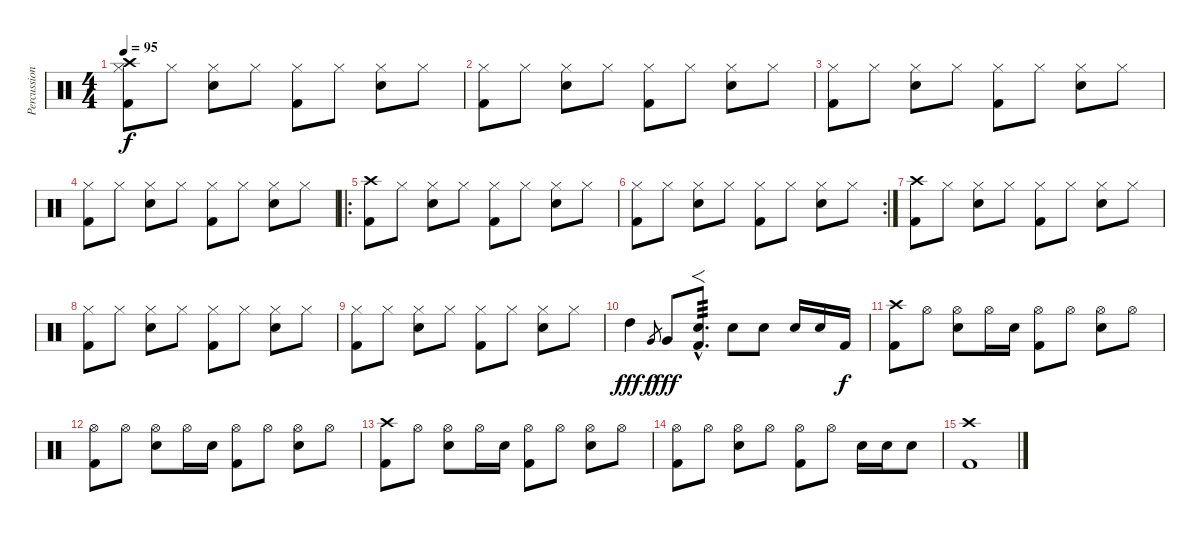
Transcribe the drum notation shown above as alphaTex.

\track ("Percussion" "Percussion") {instrument percussion}
\staff {score}
\articulation defaults
\ts (4 4)
\tempo 95
\clef neutral
\ks c
("Crash high (hit)" "Hi-Hat (closed)" "Kick (hit) 2").8{dy f volume 13} "Hi-Hat (closed)".8 ("Hi-Hat (closed)" "Electric Snare (hit)").8 "Hi-Hat (closed)".8 ("Hi-Hat (closed)" "Kick (hit) 2").8 "Hi-Hat (closed)".8 ("Hi-Hat (closed)" "Electric Snare (hit)").8 "Hi-Hat (closed)".8 |
("Hi-Hat (closed)" "Kick (hit) 2").8 "Hi-Hat (closed)".8 ("Hi-Hat (closed)" "Electric Snare (hit)").8 "Hi-Hat (closed)".8 ("Hi-Hat (closed)" "Kick (hit) 2").8 "Hi-Hat (closed)".8 ("Hi-Hat (closed)" "Electric Snare (hit)").8 "Hi-Hat (closed)".8 |
("Hi-Hat (closed)" "Kick (hit) 2").8 "Hi-Hat (closed)".8 ("Hi-Hat (closed)" "Electric Snare (hit)").8 "Hi-Hat (closed)".8 ("Hi-Hat (closed)" "Kick (hit) 2").8 "Hi-Hat (closed)".8 ("Hi-Hat (closed)" "Electric Snare (hit)").8 "Hi-Hat (closed)".8 |
("Hi-Hat (closed)" "Kick (hit) 2").8 "Hi-Hat (closed)".8 ("Hi-Hat (closed)" "Electric Snare (hit)").8 "Hi-Hat (closed)".8 ("Hi-Hat (closed)" "Kick (hit) 2").8 "Hi-Hat (closed)".8 ("Hi-Hat (closed)" "Electric Snare (hit)").8 "Hi-Hat (closed)".8 |
\ro
("Crash high (hit)" "Kick (hit) 2").8 "Hi-Hat (closed)".8 ("Hi-Hat (closed)" "Electric Snare (hit)").8 "Hi-Hat (closed)".8 ("Hi-Hat (closed)" "Kick (hit) 2").8 "Hi-Hat (closed)".8 ("Hi-Hat (closed)" "Electric Snare (hit)").8 "Hi-Hat (closed)".8 |
\rc 2
("Hi-Hat (closed)" "Kick (hit) 2").8 "Hi-Hat (closed)".8 ("Hi-Hat (closed)" "Electric Snare (hit)").8 "Hi-Hat (closed)".8 ("Hi-Hat (closed)" "Kick (hit) 2").8 "Hi-Hat (closed)".8 ("Hi-Hat (closed)" "Electric Snare (hit)").8 "Hi-Hat (closed)".8 |
("Crash high (hit)" "Kick (hit) 2").8 "Hi-Hat (closed)".8 ("Hi-Hat (closed)" "Electric Snare (hit)").8 "Hi-Hat (closed)".8 ("Hi-Hat (closed)" "Kick (hit) 2").8 "Hi-Hat (closed)".8 ("Hi-Hat (closed)" "Electric Snare (hit)").8 "Hi-Hat (closed)".8 |
("Hi-Hat (closed)" "Kick (hit) 2").8 "Hi-Hat (closed)".8 ("Hi-Hat (closed)" "Electric Snare (hit)").8 "Hi-Hat (closed)".8 ("Hi-Hat (closed)" "Kick (hit) 2").8 "Hi-Hat (closed)".8 ("Hi-Hat (closed)" "Electric Snare (hit)").8 "Hi-Hat (closed)".8 |
("Hi-Hat (closed)" "Kick (hit) 2").8 "Hi-Hat (closed)".8 ("Hi-Hat (closed)" "Electric Snare (hit)").8 "Hi-Hat (closed)".8 ("Hi-Hat (closed)" "Kick (hit) 2").8 "Hi-Hat (closed)".8 ("Hi-Hat (closed)" "Electric Snare (hit)").8 "Hi-Hat (closed)".8 |
"High Tom (hit)".4{dy fff volume 16} "Very Low Tom (hit)".8{gr dy f} "Very Low Tom (hit)".8{dy fff} ("Electric Snare (hit)"{hac} "Kick (hit) 2"{hac}).8{f d tp 3} "Electric Snare (hit)".8 "Electric Snare (hit)".8 "Electric Snare (hit)".16 "Electric Snare (hit)".16 "Kick (hit) 2".16{dy f} |
("Crash high (hit)" "Kick (hit) 2").8 "Hi-Hat (open)".8 ("Hi-Hat (open)" "Electric Snare (hit)").8 "Hi-Hat (open)".16 "Electric Snare (hit)".16 ("Hi-Hat (open)" "Kick (hit) 2").8 "Hi-Hat (open)".8 ("Hi-Hat (open)" "Electric Snare (hit)").8 "Hi-Hat (open)".8 |
("Hi-Hat (open)" "Kick (hit) 2").8 "Hi-Hat (open)".8 ("Hi-Hat (open)" "Electric Snare (hit)").8 "Hi-Hat (open)".16 "Electric Snare (hit)".16 ("Hi-Hat (open)" "Kick (hit) 2").8 "Hi-Hat (open)".8 ("Hi-Hat (open)" "Electric Snare (hit)").8 "Hi-Hat (open)".8 |
("Crash high (hit)" "Kick (hit) 2").8 "Hi-Hat (open)".8 ("Hi-Hat (open)" "Electric Snare (hit)").8 "Hi-Hat (open)".16 "Electric Snare (hit)".16 ("Hi-Hat (open)" "Kick (hit) 2").8 "Hi-Hat (open)".8 ("Hi-Hat (open)" "Electric Snare (hit)").8 "Hi-Hat (open)".8 |
("Hi-Hat (open)" "Kick (hit) 2").8 "Hi-Hat (open)".8 ("Hi-Hat (open)" "Electric Snare (hit)").8 "Hi-Hat (open)".8 ("Hi-Hat (open)" "Kick (hit) 2").8 "Hi-Hat (open)".8 "Electric Snare (hit)".16 "Electric Snare (hit)".16 "Electric Snare (hit)".8 |
("Crash high (hit)" "Kick (hit) 2").1
